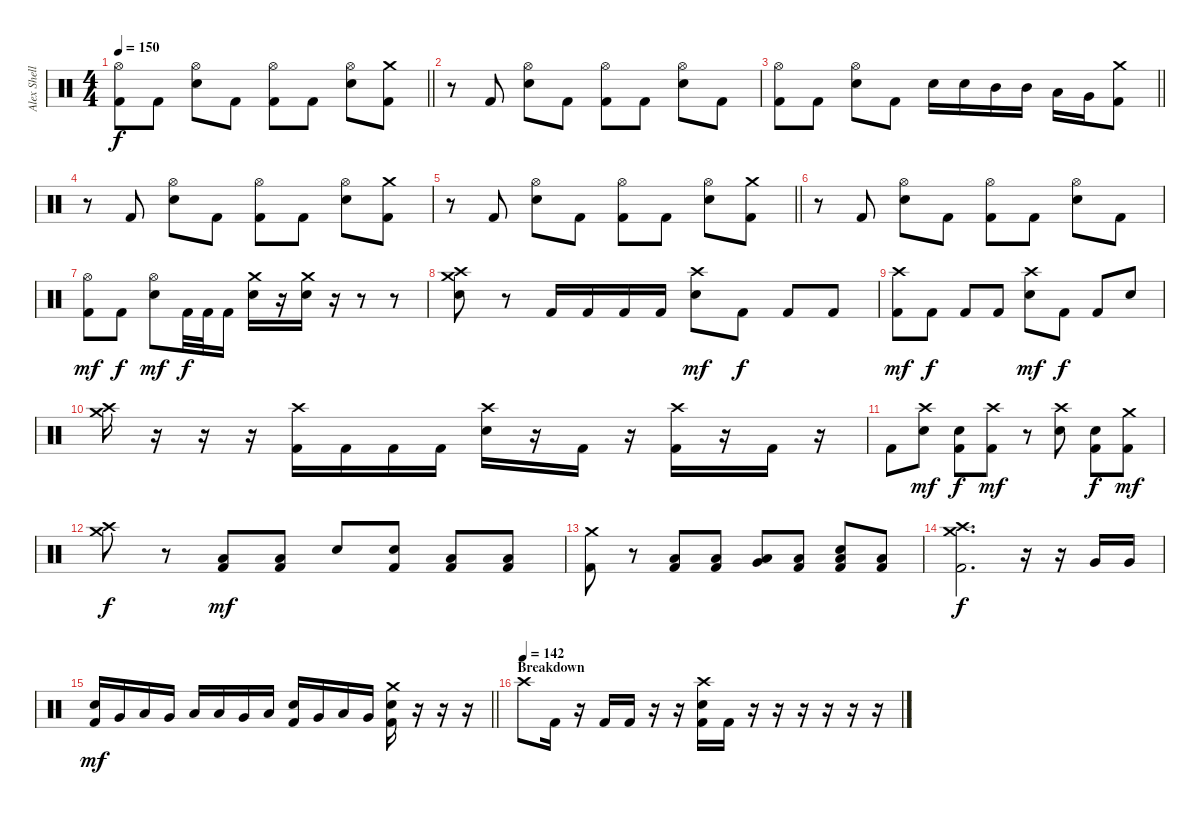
\track ("Alex Shellnutt" "Alex Shell") {instrument percussion}
\staff {score}
\articulation defaults
\ts (4 4)
\tempo 150
\clef neutral
\barLineRight lightlight
\ks c
("Hi-Hat (open)" "Kick (hit) 2").8{dy f} "Kick (hit) 2".8 ("Hi-Hat (open)" "Snare (hit) 2").8 "Kick (hit) 2".8 ("Hi-Hat (open)" "Kick (hit) 2").8 "Kick (hit) 2".8 ("Hi-Hat (open)" "Snare (hit) 2").8 ("Crash medium (hit)" "Kick (hit) 2").8 |
r.8 "Kick (hit) 2".8 ("Hi-Hat (open)" "Snare (hit) 2").8 "Kick (hit) 2".8 ("Hi-Hat (open)" "Kick (hit) 2").8 "Kick (hit) 2".8 ("Hi-Hat (open)" "Snare (hit) 2").8 "Kick (hit) 2".8 |
\barLineRight lightlight
("Hi-Hat (open)" "Kick (hit) 2").8 "Kick (hit) 2".8 ("Hi-Hat (open)" "Snare (hit) 2").8 "Kick (hit) 2".8 "Snare (hit) 2".16 "Snare (hit) 2".16 "Mid Tom (hit)".16 "Mid Tom (hit)".16 "Low Tom (hit)".16 "Very Low Tom (hit)".16 ("Crash medium (hit)" "Kick (hit) 2").8 |
r.8 "Kick (hit) 2".8 ("Hi-Hat (open)" "Snare (hit) 2").8 "Kick (hit) 2".8 ("Hi-Hat (open)" "Kick (hit) 2").8 "Kick (hit) 2".8 ("Hi-Hat (open)" "Snare (hit) 2").8 ("Crash medium (hit)" "Kick (hit) 2").8 |
\barLineRight lightlight
r.8 "Kick (hit) 2".8 ("Hi-Hat (open)" "Snare (hit) 2").8 "Kick (hit) 2".8 ("Hi-Hat (open)" "Kick (hit) 2").8 "Kick (hit) 2".8 ("Hi-Hat (open)" "Snare (hit) 2").8 ("Crash medium (hit)" "Kick (hit) 2").8 |
r.8 "Kick (hit) 2".8 ("Hi-Hat (open)" "Snare (hit) 2").8 "Kick (hit) 2".8 ("Hi-Hat (open)" "Kick (hit) 2").8 "Kick (hit) 2".8 ("Hi-Hat (open)" "Snare (hit) 2").8 "Kick (hit) 2".8 |
("Hi-Hat (open)" "Kick (hit) 2").8{dy mf} "Kick (hit) 2".8{dy f} ("Hi-Hat (open)" "Snare (hit) 2").8{dy mf} "Kick (hit) 2".32{dy f} "Kick (hit) 2".32 "Kick (hit) 2".16 ("Crash medium (hit)" "Snare (hit) 2").16 r.16 ("Crash medium (hit)" "Snare (hit) 2").16 r.16 r.8 r.8 |
("Crash medium (hit)" "Crash high (hit)" "Snare (hit) 2").8 r.8 "Kick (hit) 2".16 "Kick (hit) 2".16 "Kick (hit) 2".16 "Kick (hit) 2".16 ("Crash high (hit)" "Snare (hit) 2").8{dy mf} "Kick (hit) 2".8{dy f} "Kick (hit) 2".8 "Kick (hit) 2".8 |
("Crash high (hit)" "Kick (hit) 2").8{dy mf} "Kick (hit) 2".8{dy f} "Kick (hit) 2".8 "Kick (hit) 2".8 ("Crash high (hit)" "Snare (hit) 2").8{dy mf} "Kick (hit) 2".8{dy f} "Kick (hit) 2".8 "Snare (hit) 2".8 |
("Crash high (hit)" "Crash medium (hit)").16 r.16 r.16 r.16 ("Crash high (hit)" "Kick (hit) 2").16 "Kick (hit) 2".16 "Kick (hit) 2".16 "Kick (hit) 2".16 ("Crash high (hit)" "Snare (hit) 2").16 r.16 "Kick (hit) 2".16 r.16 ("Crash high (hit)" "Kick (hit) 2").16 r.16 "Kick (hit) 2".16 r.16 |
"Kick (hit) 2".8 ("Crash high (hit)" "Snare (hit) 2").8{dy mf} ("Snare (hit) 2" "Kick (hit) 2").8{dy f} ("Crash high (hit)" "Kick (hit) 2").8{dy mf} r.8 ("Crash high (hit)" "Snare (hit) 2").8 ("Snare (hit) 2" "Kick (hit) 2").8{dy f} ("Crash medium (hit)" "Kick (hit) 2").8{dy mf} |
("Crash medium (hit)" "Crash high (hit)").8{dy f} r.8 ("Low Floor Tom (hit)" "Kick (hit) 2").8{dy mf} ("Low Floor Tom (hit)" "Kick (hit) 2").8 "Snare (hit) 2".8 ("Snare (hit) 2" "Kick (hit) 2").8 ("Low Floor Tom (hit)" "Kick (hit) 2").8 ("Low Floor Tom (hit)" "Kick (hit) 2").8 |
("Crash medium (hit)" "Kick (hit) 2").8 r.8 ("Low Floor Tom (hit)" "Kick (hit) 2").8 ("Low Floor Tom (hit)" "Kick (hit) 2").8 ("Very Low Tom (hit)" "Low Floor Tom (hit)").8 ("Low Floor Tom (hit)" "Kick (hit) 2").8 ("Snare (hit) 2" "Low Floor Tom (hit)" "Kick (hit) 2").8 ("Low Floor Tom (hit)" "Kick (hit) 2").8 |
("Crash medium (hit)" "Crash high (hit)" "Kick (hit) 2").2{d dy f} r.16 r.16 "Very Low Tom (hit)".16 "Very Low Tom (hit)".16 |
\barLineRight lightlight
("Snare (hit) 2" "Kick (hit) 2").16{dy mf} "Very Low Tom (hit)".16 "Low Tom (hit)".16 "Very Low Tom (hit)".16 "Low Floor Tom (hit)".16 "Low Tom (hit)".16 "Very Low Tom (hit)".16 "Low Floor Tom (hit)".16 ("Snare (hit) 2" "Kick (hit) 2").16 "Very Low Tom (hit)".16 "Low Tom (hit)".16 "Very Low Tom (hit)".16 ("Crash medium (hit)" "Snare (hit) 2" "Kick (hit) 2").16 r.16 r.16 r.16 |
\section ("" "Breakdown")
\tempo 141
\tempo (142)
"Crash high (hit)".8 "Kick (hit) 2".16 r.16 "Kick (hit) 2".16 "Kick (hit) 2".16 r.16 r.16 ("Crash high (hit)" "Snare (hit) 2" "Kick (hit) 2").16 "Kick (hit) 2".16 r.16 r.16 r.16 r.16 r.16 r.16
